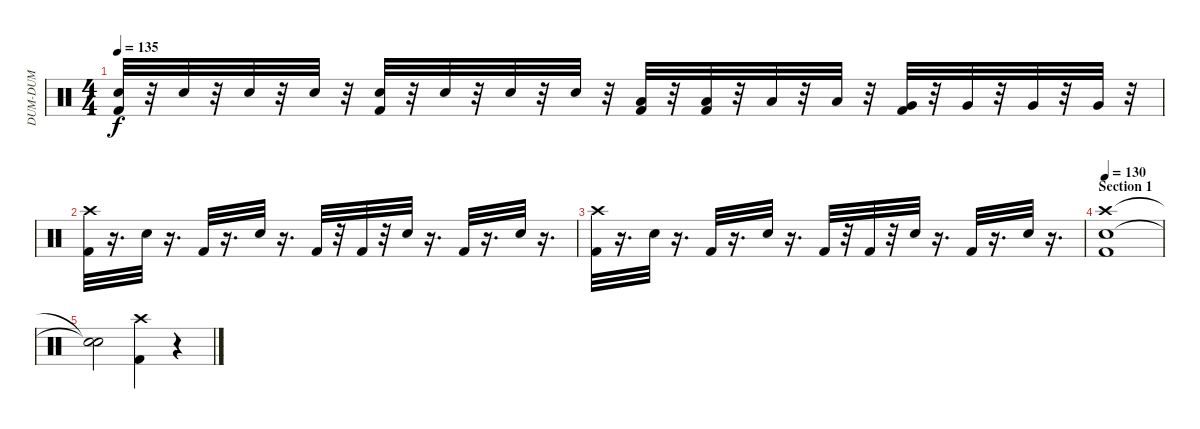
\track ("DUM-DUM" "DUM-DUM") {instrument percussion}
\staff {score}
\articulation defaults
\ts (4 4)
\tempo 135
\clef neutral
\ks c
("Kick (hit) 2" "Electric Snare (hit)").32{dy f} r.32 "Electric Snare (hit)".32 r.32 "Electric Snare (hit)".32 r.32 "Electric Snare (hit)".32 r.32 ("Kick (hit) 2" "Electric Snare (hit)").32 r.32 "Electric Snare (hit)".32 r.32 "Electric Snare (hit)".32 r.32 "Electric Snare (hit)".32 r.32 ("Kick (hit) 2" "Low Tom (hit)").32 r.32 ("Kick (hit) 2" "Low Tom (hit)").32 r.32 "Low Tom (hit)".32 r.32 "Low Tom (hit)".32 r.32 ("Kick (hit) 2" "Very Low Tom (hit)").32 r.32 "Very Low Tom (hit)".32 r.32 "Very Low Tom (hit)".32 r.32 "Very Low Tom (hit)".32 r.32 |
("Kick (hit) 2" "Crash high (hit)").32 r.16{d} "Electric Snare (hit)".32 r.16{d} "Kick (hit) 2".32 r.16{d} "Electric Snare (hit)".32 r.16{d} "Kick (hit) 2".32 r.32 "Kick (hit) 2".32 r.32 "Electric Snare (hit)".32 r.16{d} "Kick (hit) 2".32 r.16{d} "Electric Snare (hit)".32 r.16{d} |
("Kick (hit) 2" "Crash high (hit)").32 r.16{d} "Electric Snare (hit)".32 r.16{d} "Kick (hit) 2".32 r.16{d} "Electric Snare (hit)".32 r.16{d} "Kick (hit) 2".32 r.32 "Kick (hit) 2".32 r.32 "Electric Snare (hit)".32 r.16{d} "Kick (hit) 2".32 r.16{d} "Electric Snare (hit)".32 r.16{d} |
\section ("" "Section 1")
\tempo 130
("Electric Snare (hit)" "Crash high (hit)" "Kick (hit) 2").1 |
("Snare (hit)"{t} "Snare (hit)"{t}).2 ("Crash high (hit)" "Kick (hit) 2").4 r.4
